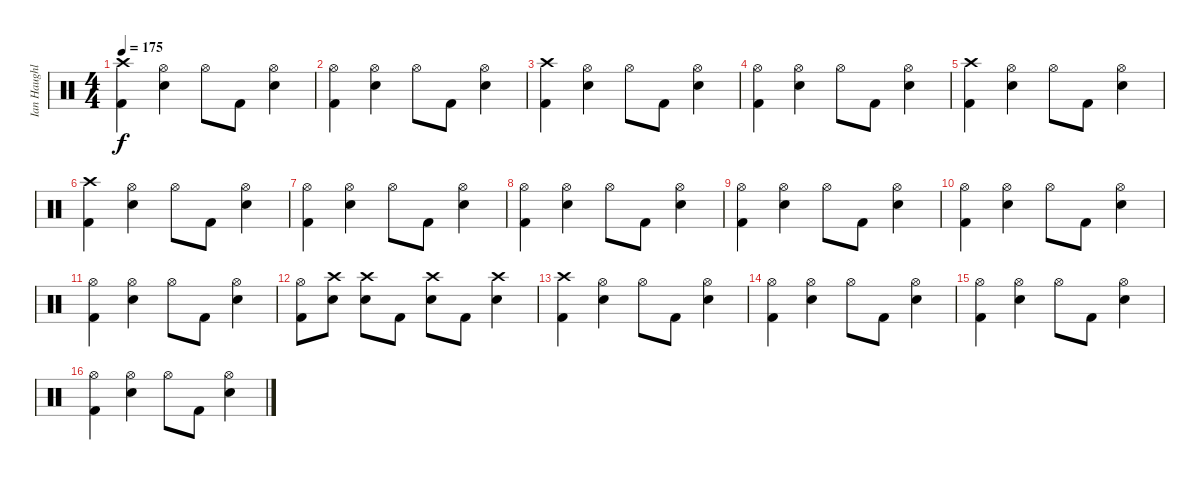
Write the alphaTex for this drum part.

\track ("Ian Haughland" "Ian Haughl") {instrument percussion}
\staff {score}
\articulation defaults
\ts (4 4)
\tempo 175
\clef neutral
\ks c
("Crash high (hit)" "Kick (hit) 2").4{dy f} ("Hi-Hat (open)" "Snare (hit) 2").4 "Hi-Hat (open)".8 "Kick (hit) 2".8 ("Hi-Hat (open)" "Snare (hit) 2").4 |
("Hi-Hat (open)" "Kick (hit) 2").4 ("Hi-Hat (open)" "Snare (hit) 2").4 "Hi-Hat (open)".8 "Kick (hit) 2".8 ("Hi-Hat (open)" "Snare (hit) 2").4 |
("Crash high (hit)" "Kick (hit) 2").4 ("Hi-Hat (open)" "Snare (hit) 2").4 "Hi-Hat (open)".8 "Kick (hit) 2".8 ("Hi-Hat (open)" "Snare (hit) 2").4 |
("Hi-Hat (open)" "Kick (hit) 2").4 ("Hi-Hat (open)" "Snare (hit) 2").4 "Hi-Hat (open)".8 "Kick (hit) 2".8 ("Hi-Hat (open)" "Snare (hit) 2").4 |
("Crash high (hit)" "Kick (hit) 2").4 ("Hi-Hat (open)" "Snare (hit) 2").4 "Hi-Hat (open)".8 "Kick (hit) 2".8 ("Hi-Hat (open)" "Snare (hit) 2").4 |
("Crash high (hit)" "Kick (hit) 2").4 ("Hi-Hat (open)" "Snare (hit) 2").4 "Hi-Hat (open)".8 "Kick (hit) 2".8 ("Hi-Hat (open)" "Snare (hit) 2").4 |
("Hi-Hat (open)" "Kick (hit) 2").4 ("Hi-Hat (open)" "Snare (hit) 2").4 "Hi-Hat (open)".8 "Kick (hit) 2".8 ("Hi-Hat (open)" "Snare (hit) 2").4 |
("Hi-Hat (open)" "Kick (hit) 2").4 ("Hi-Hat (open)" "Snare (hit) 2").4 "Hi-Hat (open)".8 "Kick (hit) 2".8 ("Hi-Hat (open)" "Snare (hit) 2").4 |
("Hi-Hat (open)" "Kick (hit) 2").4 ("Hi-Hat (open)" "Snare (hit) 2").4 "Hi-Hat (open)".8 "Kick (hit) 2".8 ("Hi-Hat (open)" "Snare (hit) 2").4 |
("Hi-Hat (open)" "Kick (hit) 2").4 ("Hi-Hat (open)" "Snare (hit) 2").4 "Hi-Hat (open)".8 "Kick (hit) 2".8 ("Hi-Hat (open)" "Snare (hit) 2").4 |
("Hi-Hat (open)" "Kick (hit) 2").4 ("Hi-Hat (open)" "Snare (hit) 2").4 "Hi-Hat (open)".8 "Kick (hit) 2".8 ("Hi-Hat (open)" "Snare (hit) 2").4 |
("Hi-Hat (open)" "Kick (hit) 2").8 ("Crash high (hit)" "Snare (hit) 2").8 ("Crash high (hit)" "Snare (hit) 2").8 "Kick (hit) 2".8 ("Crash high (hit)" "Snare (hit) 2").8 "Kick (hit) 2".8 ("Crash high (hit)" "Snare (hit) 2").4 |
("Crash high (hit)" "Kick (hit) 2").4 ("Hi-Hat (open)" "Snare (hit) 2").4 "Hi-Hat (open)".8 "Kick (hit) 2".8 ("Hi-Hat (open)" "Snare (hit) 2").4 |
("Hi-Hat (open)" "Kick (hit) 2").4 ("Hi-Hat (open)" "Snare (hit) 2").4 "Hi-Hat (open)".8 "Kick (hit) 2".8 ("Hi-Hat (open)" "Snare (hit) 2").4 |
("Hi-Hat (open)" "Kick (hit) 2").4 ("Hi-Hat (open)" "Snare (hit) 2").4 "Hi-Hat (open)".8 "Kick (hit) 2".8 ("Hi-Hat (open)" "Snare (hit) 2").4 |
("Hi-Hat (open)" "Kick (hit) 2").4 ("Hi-Hat (open)" "Snare (hit) 2").4 "Hi-Hat (open)".8 "Kick (hit) 2".8 ("Hi-Hat (open)" "Snare (hit) 2").4
